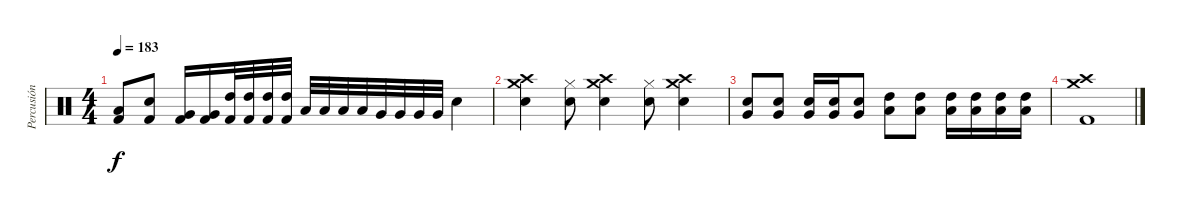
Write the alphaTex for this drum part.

\track ("Percusión" "Percusión") {instrument percussion}
\staff {score}
\articulation defaults
\ts (4 4)
\tempo 183
\clef neutral
\ks c
("Kick (hit) 2" "Low Floor Tom (hit)").8{dy f} ("Kick (hit) 2" "Electric Snare (hit)").8 ("Kick (hit) 2" "Very Low Tom (hit)").16 ("Kick (hit) 2" "Very Low Tom (hit)").16 ("Kick (hit) 2" "High Tom (hit)").32 ("Kick (hit) 2" "High Tom (hit)").32 ("Kick (hit) 2" "High Tom (hit)").32 ("Kick (hit) 2" "High Tom (hit)").32 "Low Tom (hit)".32 "Low Tom (hit)".32 "Low Tom (hit)".32 "Low Tom (hit)".32 "Very Low Tom (hit)".32 "Very Low Tom (hit)".32 "Very Low Tom (hit)".32 "Very Low Tom (hit)".32 "Electric Snare (hit)".4 |
("Electric Snare (hit)" "Crash medium (hit)" "Crash high (hit)").4 ("Electric Snare (hit)" "Hi-Hat (closed)").8 ("Electric Snare (hit)" "Crash medium (hit)" "Crash high (hit)").4 ("Electric Snare (hit)" "Hi-Hat (closed)").8 ("Electric Snare (hit)" "Crash medium (hit)" "Crash high (hit)").4 |
("Electric Snare (hit)" "Very Low Tom (hit)").8 ("Electric Snare (hit)" "Very Low Tom (hit)").8 ("Electric Snare (hit)" "Very Low Tom (hit)").16 ("Electric Snare (hit)" "Very Low Tom (hit)").16 ("Electric Snare (hit)" "Very Low Tom (hit)").8 ("Low Tom (hit)" "High Tom (hit)").8 ("Low Tom (hit)" "High Tom (hit)").8 ("Low Tom (hit)" "High Tom (hit)").16 ("Low Tom (hit)" "High Tom (hit)").16 ("Low Tom (hit)" "High Tom (hit)").16 ("Low Tom (hit)" "High Tom (hit)").16 |
("Kick (hit) 2" "Crash medium (hit)" "Crash high (hit)").1
